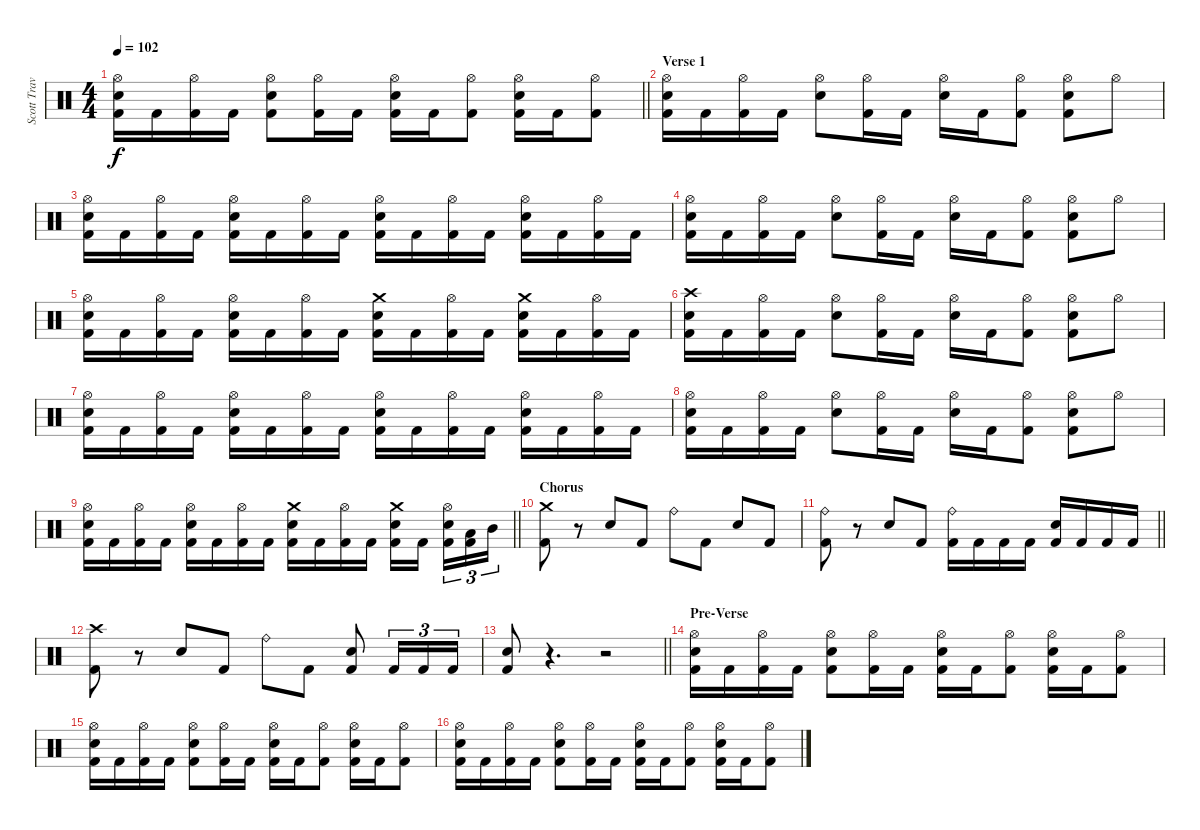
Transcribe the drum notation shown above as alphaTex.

\track ("Scott Travis" "Scott Trav") {instrument percussion}
\staff {score}
\articulation defaults
\ts (4 4)
\tempo 102
\clef neutral
\barLineRight lightlight
\ks c
("Hi-Hat (open)" "Snare (hit) 2" "Kick (hit) 2").16{dy f} "Kick (hit) 2".16 ("Hi-Hat (open)" "Kick (hit) 2").16 "Kick (hit) 2".16 ("Hi-Hat (open)" "Snare (hit) 2" "Kick (hit) 2").8 ("Hi-Hat (open)" "Kick (hit) 2").16 "Kick (hit) 2".16 ("Hi-Hat (open)" "Snare (hit) 2" "Kick (hit) 2").16 "Kick (hit) 2".16 ("Hi-Hat (open)" "Kick (hit) 2").8 ("Hi-Hat (open)" "Snare (hit) 2" "Kick (hit) 2").16 "Kick (hit) 2".16 ("Hi-Hat (open)" "Kick (hit) 2").8 |
\section ("" "Verse 1")
("Hi-Hat (open)" "Snare (hit) 2" "Kick (hit) 2").16 "Kick (hit) 2".16 ("Hi-Hat (open)" "Kick (hit) 2").16 "Kick (hit) 2".16 ("Hi-Hat (open)" "Snare (hit) 2").8 ("Hi-Hat (open)" "Kick (hit) 2").16 "Kick (hit) 2".16 ("Hi-Hat (open)" "Snare (hit) 2").16 "Kick (hit) 2".16 ("Hi-Hat (open)" "Kick (hit) 2").8 ("Hi-Hat (open)" "Snare (hit) 2" "Kick (hit) 2").8 "Hi-Hat (open)".8 |
("Hi-Hat (open)" "Snare (hit) 2" "Kick (hit) 2").16 "Kick (hit) 2".16 ("Hi-Hat (open)" "Kick (hit) 2").16 "Kick (hit) 2".16 ("Hi-Hat (open)" "Snare (hit) 2" "Kick (hit) 2").16 "Kick (hit) 2".16 ("Hi-Hat (open)" "Kick (hit) 2").16 "Kick (hit) 2".16 ("Hi-Hat (open)" "Snare (hit) 2" "Kick (hit) 2").16 "Kick (hit) 2".16 ("Hi-Hat (open)" "Kick (hit) 2").16 "Kick (hit) 2".16 ("Hi-Hat (open)" "Snare (hit) 2" "Kick (hit) 2").16 "Kick (hit) 2".16 ("Hi-Hat (open)" "Kick (hit) 2").16 "Kick (hit) 2".16 |
("Hi-Hat (open)" "Snare (hit) 2" "Kick (hit) 2").16 "Kick (hit) 2".16 ("Hi-Hat (open)" "Kick (hit) 2").16 "Kick (hit) 2".16 ("Hi-Hat (open)" "Snare (hit) 2").8 ("Hi-Hat (open)" "Kick (hit) 2").16 "Kick (hit) 2".16 ("Hi-Hat (open)" "Snare (hit) 2").16 "Kick (hit) 2".16 ("Hi-Hat (open)" "Kick (hit) 2").8 ("Hi-Hat (open)" "Snare (hit) 2" "Kick (hit) 2").8 "Hi-Hat (open)".8 |
("Hi-Hat (open)" "Snare (hit) 2" "Kick (hit) 2").16 "Kick (hit) 2".16 ("Hi-Hat (open)" "Kick (hit) 2").16 "Kick (hit) 2".16 ("Hi-Hat (open)" "Snare (hit) 2" "Kick (hit) 2").16 "Kick (hit) 2".16 ("Hi-Hat (open)" "Kick (hit) 2").16 "Kick (hit) 2".16 ("Crash medium (hit)" "Snare (hit) 2" "Kick (hit) 2").16 "Kick (hit) 2".16 ("Hi-Hat (open)" "Kick (hit) 2").16 "Kick (hit) 2".16 ("Crash medium (hit)" "Snare (hit) 2" "Kick (hit) 2").16 "Kick (hit) 2".16 ("Hi-Hat (open)" "Kick (hit) 2").16 "Kick (hit) 2".16 |
("Crash high (hit)" "Snare (hit) 2" "Kick (hit) 2").16 "Kick (hit) 2".16 ("Hi-Hat (open)" "Kick (hit) 2").16 "Kick (hit) 2".16 ("Hi-Hat (open)" "Snare (hit) 2").8 ("Hi-Hat (open)" "Kick (hit) 2").16 "Kick (hit) 2".16 ("Hi-Hat (open)" "Snare (hit) 2").16 "Kick (hit) 2".16 ("Hi-Hat (open)" "Kick (hit) 2").8 ("Hi-Hat (open)" "Snare (hit) 2" "Kick (hit) 2").8 "Hi-Hat (open)".8 |
("Hi-Hat (open)" "Snare (hit) 2" "Kick (hit) 2").16 "Kick (hit) 2".16 ("Hi-Hat (open)" "Kick (hit) 2").16 "Kick (hit) 2".16 ("Hi-Hat (open)" "Snare (hit) 2" "Kick (hit) 2").16 "Kick (hit) 2".16 ("Hi-Hat (open)" "Kick (hit) 2").16 "Kick (hit) 2".16 ("Hi-Hat (open)" "Snare (hit) 2" "Kick (hit) 2").16 "Kick (hit) 2".16 ("Hi-Hat (open)" "Kick (hit) 2").16 "Kick (hit) 2".16 ("Hi-Hat (open)" "Snare (hit) 2" "Kick (hit) 2").16 "Kick (hit) 2".16 ("Hi-Hat (open)" "Kick (hit) 2").16 "Kick (hit) 2".16 |
("Hi-Hat (open)" "Snare (hit) 2" "Kick (hit) 2").16 "Kick (hit) 2".16 ("Hi-Hat (open)" "Kick (hit) 2").16 "Kick (hit) 2".16 ("Hi-Hat (open)" "Snare (hit) 2").8 ("Hi-Hat (open)" "Kick (hit) 2").16 "Kick (hit) 2".16 ("Hi-Hat (open)" "Snare (hit) 2").16 "Kick (hit) 2".16 ("Hi-Hat (open)" "Kick (hit) 2").8 ("Hi-Hat (open)" "Snare (hit) 2" "Kick (hit) 2").8 "Hi-Hat (open)".8 |
\barLineRight lightlight
("Hi-Hat (open)" "Snare (hit) 2" "Kick (hit) 2").16 "Kick (hit) 2".16 ("Hi-Hat (open)" "Kick (hit) 2").16 "Kick (hit) 2".16 ("Hi-Hat (open)" "Snare (hit) 2" "Kick (hit) 2").16 "Kick (hit) 2".16 ("Hi-Hat (open)" "Kick (hit) 2").16 "Kick (hit) 2".16 ("Crash medium (hit)" "Snare (hit) 2" "Kick (hit) 2").16 "Kick (hit) 2".16 ("Hi-Hat (open)" "Kick (hit) 2").16 "Kick (hit) 2".16 ("Crash medium (hit)" "Snare (hit) 2" "Kick (hit) 2").16 "Kick (hit) 2".16{beam splitsecondary} ("Hi-Hat (open)" "Snare (hit) 2" "Kick (hit) 2").16{tu (3 2)} ("Low Tom (hit)" "Kick (hit) 2").16{tu (3 2)} "Mid Tom (hit)".16{tu (3 2)} |
\section ("" "Chorus")
("Crash medium (hit)" "Kick (hit) 2").8 r.8 "Snare (hit) 2".8 "Kick (hit) 2".8 "Ride (bell)".8 "Kick (hit) 2".8 "Snare (hit) 2".8 "Kick (hit) 2".8 |
\barLineRight lightlight
("Ride (bell)" "Kick (hit) 2").8 r.8 "Snare (hit) 2".8 "Kick (hit) 2".8 ("Ride (bell)" "Kick (hit) 2").16 "Kick (hit) 2".16 "Kick (hit) 2".16 "Kick (hit) 2".16 ("Snare (hit) 2" "Kick (hit) 2").16 "Kick (hit) 2".16 "Kick (hit) 2".16 "Kick (hit) 2".16 |
("Crash high (hit)" "Kick (hit) 2").8 r.8 "Snare (hit) 2".8 "Kick (hit) 2".8 "Ride (bell)".8 "Kick (hit) 2".8 ("Snare (hit) 2" "Kick (hit) 2").8 "Kick (hit) 2".16{tu (3 2)} "Kick (hit) 2".16{tu (3 2)} "Kick (hit) 2".16{tu (3 2)} |
\barLineRight lightlight
("Snare (hit) 2" "Kick (hit) 2").8 r.4{d} r.2 |
\section ("" "Pre-Verse")
("Hi-Hat (open)" "Snare (hit) 2" "Kick (hit) 2").16 "Kick (hit) 2".16 ("Hi-Hat (open)" "Kick (hit) 2").16 "Kick (hit) 2".16 ("Hi-Hat (open)" "Snare (hit) 2" "Kick (hit) 2").8 ("Hi-Hat (open)" "Kick (hit) 2").16 "Kick (hit) 2".16 ("Hi-Hat (open)" "Snare (hit) 2" "Kick (hit) 2").16 "Kick (hit) 2".16 ("Hi-Hat (open)" "Kick (hit) 2").8 ("Hi-Hat (open)" "Snare (hit) 2" "Kick (hit) 2").16 "Kick (hit) 2".16 ("Hi-Hat (open)" "Kick (hit) 2").8 |
("Hi-Hat (open)" "Snare (hit) 2" "Kick (hit) 2").16 "Kick (hit) 2".16 ("Hi-Hat (open)" "Kick (hit) 2").16 "Kick (hit) 2".16 ("Hi-Hat (open)" "Snare (hit) 2" "Kick (hit) 2").8 ("Hi-Hat (open)" "Kick (hit) 2").16 "Kick (hit) 2".16 ("Hi-Hat (open)" "Snare (hit) 2" "Kick (hit) 2").16 "Kick (hit) 2".16 ("Hi-Hat (open)" "Kick (hit) 2").8 ("Hi-Hat (open)" "Snare (hit) 2" "Kick (hit) 2").16 "Kick (hit) 2".16 ("Hi-Hat (open)" "Kick (hit) 2").8 |
("Hi-Hat (open)" "Snare (hit) 2" "Kick (hit) 2").16 "Kick (hit) 2".16 ("Hi-Hat (open)" "Kick (hit) 2").16 "Kick (hit) 2".16 ("Hi-Hat (open)" "Snare (hit) 2" "Kick (hit) 2").8 ("Hi-Hat (open)" "Kick (hit) 2").16 "Kick (hit) 2".16 ("Hi-Hat (open)" "Snare (hit) 2" "Kick (hit) 2").16 "Kick (hit) 2".16 ("Hi-Hat (open)" "Kick (hit) 2").8 ("Hi-Hat (open)" "Snare (hit) 2" "Kick (hit) 2").16 "Kick (hit) 2".16 ("Hi-Hat (open)" "Kick (hit) 2").8
